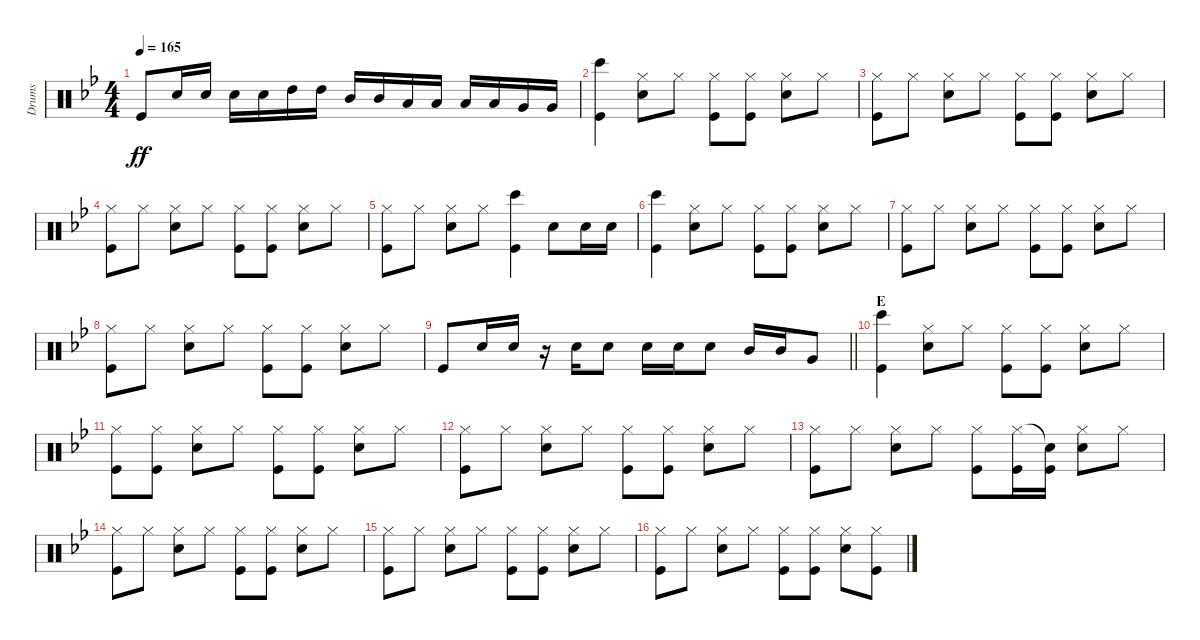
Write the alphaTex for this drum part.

\track ("Drums" "Drums") {instrument percussion}
\staff {score}
\articulation defaults
\ts (4 4)
\tempo 165
\clef neutral
\ks bb "Kick (hit)".8{dy ff} "Snare (hit) 2".16 "Snare (hit) 2".16 "Snare (hit) 2".16 "Snare (hit) 2".16 "High Tom (hit)".16 "High Tom (hit)".16 "Mid Tom (hit)".16 "Mid Tom (hit)".16 "Low Tom (hit)".16 "Low Tom (hit)".16 "Low Tom (hit)".16 "Low Tom (hit)".16 "Very Low Tom (hit)".16 "Very Low Tom (hit)".16
|
("Bongo High (hit)" "Kick (hit)").4 ("Hi-Hat (closed)" "Snare (hit) 2").8 "Hi-Hat (closed)".8 ("Hi-Hat (closed)" "Kick (hit)").8 ("Hi-Hat (closed)" "Kick (hit)").8 ("Hi-Hat (closed)" "Snare (hit) 2").8 "Hi-Hat (closed)".8 |
("Hi-Hat (closed)" "Kick (hit)").8 "Hi-Hat (closed)".8 ("Hi-Hat (closed)" "Snare (hit) 2").8 "Hi-Hat (closed)".8 ("Hi-Hat (closed)" "Kick (hit)").8 ("Hi-Hat (closed)" "Kick (hit)").8 ("Hi-Hat (closed)" "Snare (hit) 2").8 "Hi-Hat (closed)".8 |
("Hi-Hat (closed)" "Kick (hit)").8 "Hi-Hat (closed)".8 ("Hi-Hat (closed)" "Snare (hit) 2").8 "Hi-Hat (closed)".8 ("Hi-Hat (closed)" "Kick (hit)").8 ("Hi-Hat (closed)" "Kick (hit)").8 ("Hi-Hat (closed)" "Snare (hit) 2").8 "Hi-Hat (closed)".8 |
("Hi-Hat (closed)" "Kick (hit)").8 "Hi-Hat (closed)".8 ("Hi-Hat (closed)" "Snare (hit) 2").8 "Hi-Hat (closed)".8 ("Bongo High (hit)" "Kick (hit)").4 "Snare (hit) 2".8 "Snare (hit) 2".16 "Snare (hit) 2".16 |
("Bongo High (hit)" "Kick (hit)").4 ("Hi-Hat (closed)" "Snare (hit) 2").8 "Hi-Hat (closed)".8 ("Hi-Hat (closed)" "Kick (hit)").8 ("Hi-Hat (closed)" "Kick (hit)").8 ("Hi-Hat (closed)" "Snare (hit) 2").8 "Hi-Hat (closed)".8 |
("Hi-Hat (closed)" "Kick (hit)").8 "Hi-Hat (closed)".8 ("Hi-Hat (closed)" "Snare (hit) 2").8 "Hi-Hat (closed)".8 ("Hi-Hat (closed)" "Kick (hit)").8 ("Hi-Hat (closed)" "Kick (hit)").8 ("Hi-Hat (closed)" "Snare (hit) 2").8 "Hi-Hat (closed)".8 |
("Hi-Hat (closed)" "Kick (hit)").8 "Hi-Hat (closed)".8 ("Hi-Hat (closed)" "Snare (hit) 2").8 "Hi-Hat (closed)".8 ("Hi-Hat (closed)" "Kick (hit)").8 ("Hi-Hat (closed)" "Kick (hit)").8 ("Hi-Hat (closed)" "Snare (hit) 2").8 "Hi-Hat (closed)".8 |
\barLineRight lightlight "Kick (hit)".8 "Snare (hit) 2".16 "Snare (hit) 2".16
r.16 "Snare (hit) 2".16 "Snare (hit) 2".8 "Snare (hit) 2".16 "Snare (hit) 2".16 "Snare (hit) 2".8 "Mid Tom (hit)".16 "Mid Tom (hit)".16 "Very Low Tom (hit)".8 |
\section ("" "E")
("Kick (hit)" "Bongo High (hit)").4 ("Hi-Hat (closed)" "Snare (hit) 2").8 "Hi-Hat (closed)".8 ("Hi-Hat (closed)" "Kick (hit)").8 ("Hi-Hat (closed)" "Kick (hit)").8 ("Hi-Hat (closed)" "Snare (hit) 2").8 "Hi-Hat (closed)".8 |
("Hi-Hat (closed)" "Kick (hit)").8 ("Hi-Hat (closed)" "Kick (hit)").8 ("Hi-Hat (closed)" "Snare (hit) 2").8 "Hi-Hat (closed)".8 ("Hi-Hat (closed)" "Kick (hit)").8 ("Hi-Hat (closed)" "Kick (hit)").8 ("Hi-Hat (closed)" "Snare (hit) 2").8 "Hi-Hat (closed)".8 |
("Hi-Hat (closed)" "Kick (hit)").8 "Hi-Hat (closed)".8 ("Hi-Hat (closed)" "Snare (hit) 2").8 "Hi-Hat (closed)".8 ("Hi-Hat (closed)" "Kick (hit)").8 ("Hi-Hat (closed)" "Kick (hit)").8 ("Hi-Hat (closed)" "Snare (hit) 2").8 "Hi-Hat (closed)".8 |
("Hi-Hat (closed)" "Kick (hit)").8 "Hi-Hat (closed)".8 ("Hi-Hat (closed)" "Snare (hit) 2").8 "Hi-Hat (closed)".8 ("Hi-Hat (closed)" "Kick (hit)").8 ("Hi-Hat (closed)" "Kick (hit)").16 ("Snare (hit)"{t} "Kick (hit)").16 ("Hi-Hat (closed)" "Snare (hit) 2").8 "Hi-Hat (closed)".8 |
("Hi-Hat (closed)" "Kick (hit)").8 "Hi-Hat (closed)".8 ("Hi-Hat (closed)" "Snare (hit) 2").8 "Hi-Hat (closed)".8 ("Hi-Hat (closed)" "Kick (hit)").8 ("Hi-Hat (closed)" "Kick (hit)").8 ("Hi-Hat (closed)" "Snare (hit) 2").8 "Hi-Hat (closed)".8 |
("Hi-Hat (closed)" "Kick (hit)").8 "Hi-Hat (closed)".8 ("Hi-Hat (closed)" "Snare (hit) 2").8 "Hi-Hat (closed)".8 ("Hi-Hat (closed)" "Kick (hit)").8 ("Hi-Hat (closed)" "Kick (hit)").8 ("Hi-Hat (closed)" "Snare (hit) 2").8 "Hi-Hat (closed)".8 |
("Hi-Hat (closed)" "Kick (hit)").8 "Hi-Hat (closed)".8 ("Hi-Hat (closed)" "Snare (hit) 2").8 "Hi-Hat (closed)".8 ("Hi-Hat (closed)" "Kick (hit)").8 ("Hi-Hat (closed)" "Kick (hit)").8 ("Hi-Hat (closed)" "Snare (hit) 2").8 ("Hi-Hat (closed)" "Kick (hit)").8
